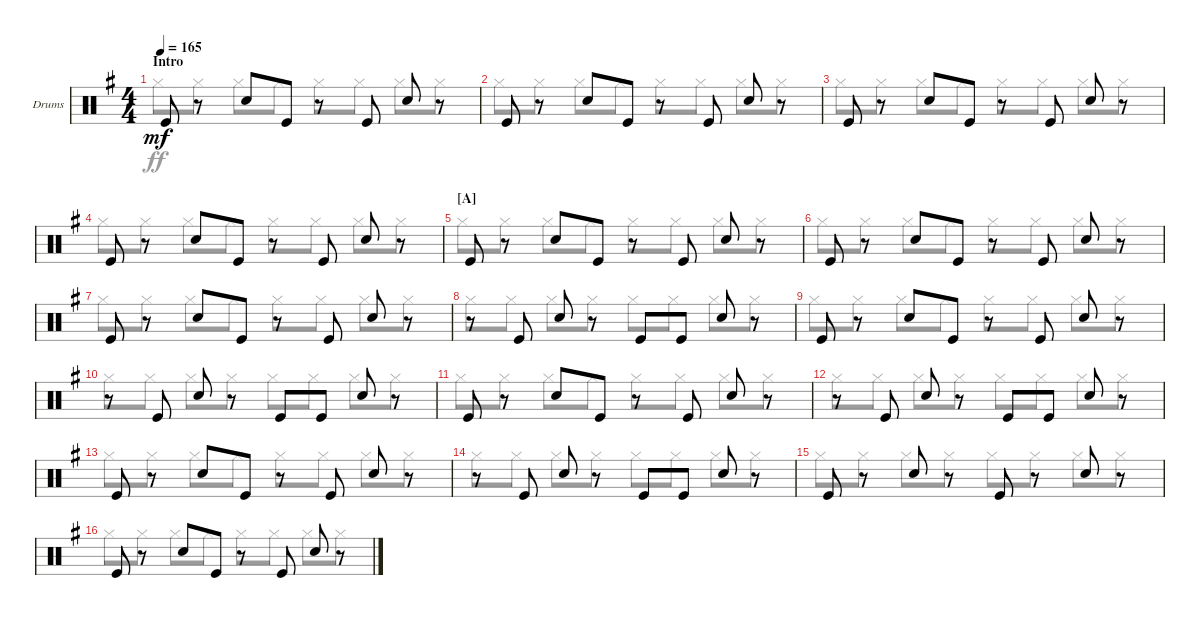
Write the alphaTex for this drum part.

\defaultSystemsLayout 4
\bracketExtendMode groupsimilarinstruments
\firstSystemTrackNameOrientation horizontal
\otherSystemsTrackNameOrientation horizontal
\track ("Fabrizio Moretti" "Drums") {instrument percussion}
\staff {score}
\articulation defaults
\voice
\ts (4 4)
\section ("" "Intro")
\tempo 165
\clef neutral
\ks g "Kick (hit)".8{dy mf}
r.8 "Snare (hit) 2".8 "Kick (hit)".8 r.8 "Kick (hit)".8 "Snare (hit) 2".8 r.8 |
"Kick (hit)".8 r.8 "Snare (hit) 2".8 "Kick (hit)".8 r.8 "Kick (hit)".8 "Snare (hit) 2".8 r.8 |
"Kick (hit)".8 r.8 "Snare (hit) 2".8 "Kick (hit)".8 r.8 "Kick (hit)".8 "Snare (hit) 2".8 r.8 |
"Kick (hit)".8 r.8 "Snare (hit) 2".8 "Kick (hit)".8 r.8 "Kick (hit)".8 "Snare (hit) 2".8 r.8 |
\section ("A" "")
"Kick (hit)".8 r.8 "Snare (hit) 2".8 "Kick (hit)".8 r.8 "Kick (hit)".8 "Snare (hit) 2".8 r.8 |
"Kick (hit)".8 r.8 "Snare (hit) 2".8 "Kick (hit)".8 r.8 "Kick (hit)".8 "Snare (hit) 2".8 r.8 |
"Kick (hit)".8 r.8 "Snare (hit) 2".8 "Kick (hit)".8 r.8 "Kick (hit)".8 "Snare (hit) 2".8 r.8 |
r.8 "Kick (hit)".8 "Snare (hit) 2".8 r.8 "Kick (hit)".8 "Kick (hit)".8 "Snare (hit) 2".8 r.8 |
"Kick (hit)".8 r.8 "Snare (hit) 2".8 "Kick (hit)".8 r.8 "Kick (hit)".8 "Snare (hit) 2".8 r.8 |
r.8 "Kick (hit)".8 "Snare (hit) 2".8 r.8 "Kick (hit)".8 "Kick (hit)".8 "Snare (hit) 2".8 r.8 |
"Kick (hit)".8 r.8 "Snare (hit) 2".8 "Kick (hit)".8 r.8 "Kick (hit)".8 "Snare (hit) 2".8 r.8 |
r.8 "Kick (hit)".8 "Snare (hit) 2".8 r.8 "Kick (hit)".8 "Kick (hit)".8 "Snare (hit) 2".8 r.8 |
"Kick (hit)".8 r.8 "Snare (hit) 2".8 "Kick (hit)".8 r.8 "Kick (hit)".8 "Snare (hit) 2".8 r.8 |
r.8 "Kick (hit)".8 "Snare (hit) 2".8 r.8 "Kick (hit)".8 "Kick (hit)".8 "Snare (hit) 2".8 r.8 |
"Kick (hit)".8 r.8 "Snare (hit) 2".8 r.8 "Kick (hit)".8 r.8 "Snare (hit) 2".8 r.8 |
"Kick (hit)".8 r.8 "Snare (hit) 2".8 "Kick (hit)".8 r.8 "Kick (hit)".8 "Snare (hit) 2".8 r.8
\voice
\clef neutral
\ottava regular
\simile none
\ks g "Hi-Hat (closed)".8{dy ff} "Hi-Hat (closed)".8 "Hi-Hat (closed)".8 "Hi-Hat (closed)".8 "Hi-Hat (closed)".8 "Hi-Hat (closed)".8 "Hi-Hat (closed)".8 "Hi-Hat (closed)".8
|
"Hi-Hat (closed)".8 "Hi-Hat (closed)".8 "Hi-Hat (closed)".8 "Hi-Hat (closed)".8 "Hi-Hat (closed)".8 "Hi-Hat (closed)".8 "Hi-Hat (closed)".8 "Hi-Hat (closed)".8 |
"Hi-Hat (closed)".8 "Hi-Hat (closed)".8 "Hi-Hat (closed)".8 "Hi-Hat (closed)".8 "Hi-Hat (closed)".8 "Hi-Hat (closed)".8 "Hi-Hat (closed)".8 "Hi-Hat (closed)".8 |
"Hi-Hat (closed)".8 "Hi-Hat (closed)".8 "Hi-Hat (closed)".8 "Hi-Hat (closed)".8 "Hi-Hat (closed)".8 "Hi-Hat (closed)".8 "Hi-Hat (closed)".8 "Hi-Hat (closed)".8 |
"Hi-Hat (closed)".8 "Hi-Hat (closed)".8 "Hi-Hat (closed)".8 "Hi-Hat (closed)".8 "Hi-Hat (closed)".8 "Hi-Hat (closed)".8 "Hi-Hat (closed)".8 "Hi-Hat (closed)".8 |
"Hi-Hat (closed)".8 "Hi-Hat (closed)".8 "Hi-Hat (closed)".8 "Hi-Hat (closed)".8 "Hi-Hat (closed)".8 "Hi-Hat (closed)".8 "Hi-Hat (closed)".8 "Hi-Hat (closed)".8 |
"Hi-Hat (closed)".8 "Hi-Hat (closed)".8 "Hi-Hat (closed)".8 "Hi-Hat (closed)".8 "Hi-Hat (closed)".8 "Hi-Hat (closed)".8 "Hi-Hat (closed)".8 "Hi-Hat (closed)".8 |
"Hi-Hat (closed)".8 "Hi-Hat (closed)".8 "Hi-Hat (closed)".8 "Hi-Hat (closed)".8 "Hi-Hat (closed)".8 "Hi-Hat (closed)".8 "Hi-Hat (closed)".8 "Hi-Hat (closed)".8 |
"Hi-Hat (closed)".8 "Hi-Hat (closed)".8 "Hi-Hat (closed)".8 "Hi-Hat (closed)".8 "Hi-Hat (closed)".8 "Hi-Hat (closed)".8 "Hi-Hat (closed)".8 "Hi-Hat (closed)".8 |
"Hi-Hat (closed)".8 "Hi-Hat (closed)".8 "Hi-Hat (closed)".8 "Hi-Hat (closed)".8 "Hi-Hat (closed)".8 "Hi-Hat (closed)".8 "Hi-Hat (closed)".8 "Hi-Hat (closed)".8 |
"Hi-Hat (closed)".8 "Hi-Hat (closed)".8 "Hi-Hat (closed)".8 "Hi-Hat (closed)".8 "Hi-Hat (closed)".8 "Hi-Hat (closed)".8 "Hi-Hat (closed)".8 "Hi-Hat (closed)".8 |
"Hi-Hat (closed)".8 "Hi-Hat (closed)".8 "Hi-Hat (closed)".8 "Hi-Hat (closed)".8 "Hi-Hat (closed)".8 "Hi-Hat (closed)".8 "Hi-Hat (closed)".8 "Hi-Hat (closed)".8 |
"Hi-Hat (closed)".8 "Hi-Hat (closed)".8 "Hi-Hat (closed)".8 "Hi-Hat (closed)".8 "Hi-Hat (closed)".8 "Hi-Hat (closed)".8 "Hi-Hat (closed)".8 "Hi-Hat (closed)".8 |
"Hi-Hat (closed)".8 "Hi-Hat (closed)".8 "Hi-Hat (closed)".8 "Hi-Hat (closed)".8 "Hi-Hat (closed)".8 "Hi-Hat (closed)".8 "Hi-Hat (closed)".8 "Hi-Hat (closed)".8 |
"Hi-Hat (closed)".8 "Hi-Hat (closed)".8 "Hi-Hat (closed)".8 "Hi-Hat (closed)".8 "Hi-Hat (closed)".8 "Hi-Hat (closed)".8 "Hi-Hat (closed)".8 "Hi-Hat (closed)".8 |
"Hi-Hat (closed)".8 "Hi-Hat (closed)".8 "Hi-Hat (closed)".8 "Hi-Hat (closed)".8 "Hi-Hat (closed)".8 "Hi-Hat (closed)".8 "Hi-Hat (closed)".8 "Hi-Hat (closed)".8
